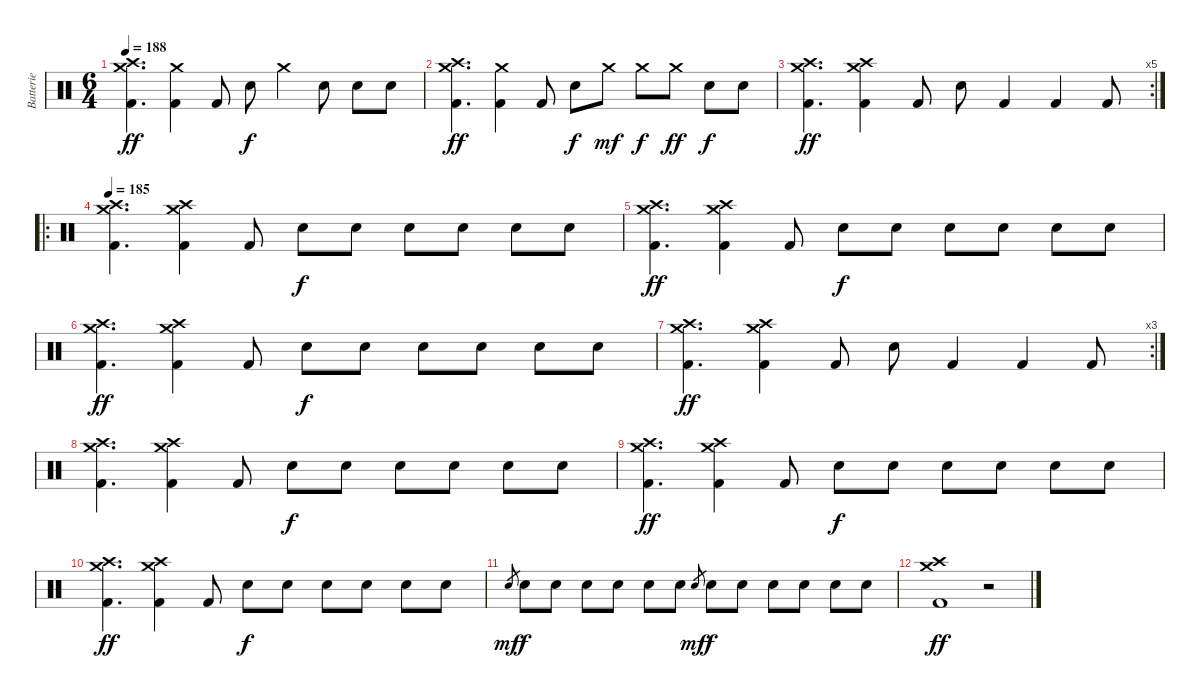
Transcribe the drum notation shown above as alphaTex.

\track ("Batterie" "Batterie") {instrument percussion}
\staff {score}
\articulation defaults
\ts (6 4)
\tempo 188
\clef neutral
\ks c
("Crash high (hit)" "Crash medium (hit)" "Kick (hit) 2").4{d dy ff} ("Crash medium (hit)" "Kick (hit) 2").4 "Kick (hit) 2".8 "Electric Snare (hit)".8{dy f} "Crash medium (hit)".4 "Electric Snare (hit)".8 "Electric Snare (hit)".8 "Electric Snare (hit)".8 |
("Crash high (hit)" "Crash medium (hit)" "Kick (hit) 2").4{d dy ff} ("Crash medium (hit)" "Kick (hit) 2").4 "Kick (hit) 2".8 "Electric Snare (hit)".8{dy f} "Crash medium (hit)".8{dy mf} "Crash medium (hit)".8{dy f} "Crash medium (hit)".8{dy ff} "Electric Snare (hit)".8{dy f} "Electric Snare (hit)".8 |
\rc 5
("Crash high (hit)" "Crash medium (hit)" "Kick (hit) 2").4{d dy ff} ("Crash high (hit)" "Crash medium (hit)" "Kick (hit) 2").4 "Kick (hit) 2".8 "Electric Snare (hit)".8 "Kick (hit) 2".4 "Kick (hit) 2".4 "Kick (hit) 2".8 |
\ro
\tempo 185
("Crash high (hit)" "Crash medium (hit)" "Kick (hit) 2").4{d} ("Crash high (hit)" "Crash medium (hit)" "Kick (hit) 2").4 "Kick (hit) 2".8 "Electric Snare (hit)".8{dy f} "Electric Snare (hit)".8 "Electric Snare (hit)".8 "Electric Snare (hit)".8 "Electric Snare (hit)".8 "Electric Snare (hit)".8 |
("Crash high (hit)" "Crash medium (hit)" "Kick (hit) 2").4{d dy ff} ("Crash high (hit)" "Crash medium (hit)" "Kick (hit) 2").4 "Kick (hit) 2".8 "Electric Snare (hit)".8{dy f} "Electric Snare (hit)".8 "Electric Snare (hit)".8 "Electric Snare (hit)".8 "Electric Snare (hit)".8 "Electric Snare (hit)".8 |
("Crash high (hit)" "Crash medium (hit)" "Kick (hit) 2").4{d dy ff} ("Crash high (hit)" "Crash medium (hit)" "Kick (hit) 2").4 "Kick (hit) 2".8 "Electric Snare (hit)".8{dy f} "Electric Snare (hit)".8 "Electric Snare (hit)".8 "Electric Snare (hit)".8 "Electric Snare (hit)".8 "Electric Snare (hit)".8 |
\rc 3
("Crash high (hit)" "Crash medium (hit)" "Kick (hit) 2").4{d dy ff} ("Crash high (hit)" "Crash medium (hit)" "Kick (hit) 2").4 "Kick (hit) 2".8 "Electric Snare (hit)".8 "Kick (hit) 2".4 "Kick (hit) 2".4 "Kick (hit) 2".8 |
("Crash high (hit)" "Crash medium (hit)" "Kick (hit) 2").4{d} ("Crash high (hit)" "Crash medium (hit)" "Kick (hit) 2").4 "Kick (hit) 2".8 "Electric Snare (hit)".8{dy f} "Electric Snare (hit)".8 "Electric Snare (hit)".8 "Electric Snare (hit)".8 "Electric Snare (hit)".8 "Electric Snare (hit)".8 |
("Crash high (hit)" "Crash medium (hit)" "Kick (hit) 2").4{d dy ff} ("Crash high (hit)" "Crash medium (hit)" "Kick (hit) 2").4 "Kick (hit) 2".8 "Electric Snare (hit)".8{dy f} "Electric Snare (hit)".8 "Electric Snare (hit)".8 "Electric Snare (hit)".8 "Electric Snare (hit)".8 "Electric Snare (hit)".8 |
("Crash high (hit)" "Crash medium (hit)" "Kick (hit) 2").4{d dy ff} ("Crash high (hit)" "Crash medium (hit)" "Kick (hit) 2").4 "Kick (hit) 2".8 "Electric Snare (hit)".8{dy f} "Electric Snare (hit)".8 "Electric Snare (hit)".8 "Electric Snare (hit)".8 "Electric Snare (hit)".8 "Electric Snare (hit)".8 |
"Electric Snare (hit)".8{gr dy mf} "Electric Snare (hit)".8{dy f} "Electric Snare (hit)".8 "Electric Snare (hit)".8 "Electric Snare (hit)".8 "Electric Snare (hit)".8 "Electric Snare (hit)".8 "Electric Snare (hit)".8{gr dy mf} "Electric Snare (hit)".8{dy f} "Electric Snare (hit)".8 "Electric Snare (hit)".8 "Electric Snare (hit)".8 "Electric Snare (hit)".8 "Electric Snare (hit)".8 |
("Crash high (hit)" "Crash medium (hit)" "Kick (hit) 2").1{dy ff} r.2
